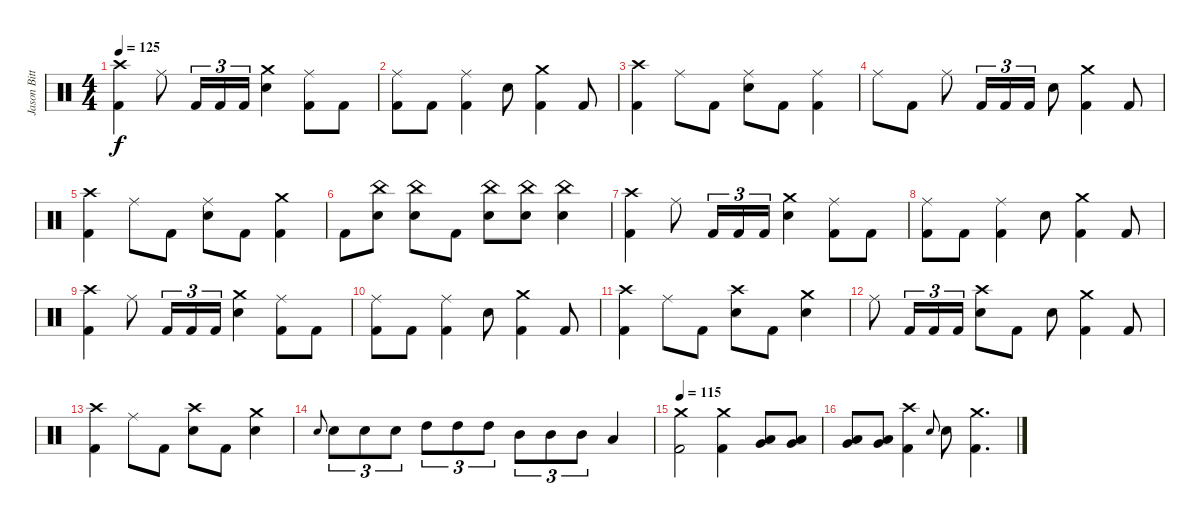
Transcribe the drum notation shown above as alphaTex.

\track ("Jason Bittner" "Jason Bitt") {instrument percussion}
\staff {score}
\articulation defaults
\ts (4 4)
\tempo 125
\clef neutral
\ks c
("Crash high (hit)" "Kick (hit) 2").4{dy f} "Ride (middle)".8 "Kick (hit) 2".16{tu (3 2)} "Kick (hit) 2".16{tu (3 2)} "Kick (hit) 2".16{tu (3 2)} ("Crash medium (hit)" "Electric Snare (hit)").4 ("Ride (middle)" "Kick (hit) 2").8 "Kick (hit) 2".8 |
("Ride (middle)" "Kick (hit) 2").8 "Kick (hit) 2".8 ("Ride (middle)" "Kick (hit) 2").4 "Electric Snare (hit)".8 ("Crash medium (hit)" "Kick (hit) 2").4 "Kick (hit) 2".8 |
("Crash high (hit)" "Kick (hit) 2").4 "Ride (middle)".8 "Kick (hit) 2".8 ("Ride (middle)" "Electric Snare (hit)").8 "Kick (hit) 2".8 ("Ride (middle)" "Kick (hit) 2").4 |
"Ride (middle)".8 "Kick (hit) 2".8 "Ride (middle)".8 "Kick (hit) 2".16{tu (3 2)} "Kick (hit) 2".16{tu (3 2)} "Kick (hit) 2".16{tu (3 2)} "Electric Snare (hit)".8 ("Crash medium (hit)" "Kick (hit) 2").4 "Kick (hit) 2".8 |
("Crash high (hit)" "Kick (hit) 2").4 "Ride (middle)".8 "Kick (hit) 2".8 ("Ride (middle)" "Electric Snare (hit)").8 "Kick (hit) 2".8 ("Crash medium (hit)" "Kick (hit) 2").4 |
"Kick (hit) 2".8 ("China (hit)" "Electric Snare (hit)").8 ("China (hit)" "Electric Snare (hit)").8 "Kick (hit) 2".8 ("China (hit)" "Electric Snare (hit)").8 ("China (hit)" "Electric Snare (hit)").8 ("China (hit)" "Electric Snare (hit)").4 |
("Crash high (hit)" "Kick (hit) 2").4 "Ride (middle)".8 "Kick (hit) 2".16{tu (3 2)} "Kick (hit) 2".16{tu (3 2)} "Kick (hit) 2".16{tu (3 2)} ("Crash medium (hit)" "Electric Snare (hit)").4 ("Ride (middle)" "Kick (hit) 2").8 "Kick (hit) 2".8 |
("Ride (middle)" "Kick (hit) 2").8 "Kick (hit) 2".8 ("Ride (middle)" "Kick (hit) 2").4 "Electric Snare (hit)".8 ("Crash medium (hit)" "Kick (hit) 2").4 "Kick (hit) 2".8 |
("Crash high (hit)" "Kick (hit) 2").4 "Ride (middle)".8 "Kick (hit) 2".16{tu (3 2)} "Kick (hit) 2".16{tu (3 2)} "Kick (hit) 2".16{tu (3 2)} ("Crash medium (hit)" "Electric Snare (hit)").4 ("Ride (middle)" "Kick (hit) 2").8 "Kick (hit) 2".8 |
("Ride (middle)" "Kick (hit) 2").8 "Kick (hit) 2".8 ("Ride (middle)" "Kick (hit) 2").4 "Electric Snare (hit)".8 ("Crash medium (hit)" "Kick (hit) 2").4 "Kick (hit) 2".8 |
("Crash high (hit)" "Kick (hit) 2").4 "Ride (middle)".8 "Kick (hit) 2".8 ("Crash high (hit)" "Electric Snare (hit)").8 "Kick (hit) 2".8 ("Crash medium (hit)" "Electric Snare (hit)").4 |
"Ride (middle)".8 "Kick (hit) 2".16{tu (3 2)} "Kick (hit) 2".16{tu (3 2)} "Kick (hit) 2".16{tu (3 2)} ("Crash high (hit)" "Electric Snare (hit)").8 "Kick (hit) 2".8 "Electric Snare (hit)".8 ("Crash medium (hit)" "Kick (hit) 2").4 "Kick (hit) 2".8 |
("Crash high (hit)" "Kick (hit) 2").4 "Ride (middle)".8 "Kick (hit) 2".8 ("Crash high (hit)" "Electric Snare (hit)").8 "Kick (hit) 2".8 ("Crash medium (hit)" "Electric Snare (hit)").4 |
"Electric Snare (hit)".8{gr onbeat} "Electric Snare (hit)".8{tu (3 2)} "Electric Snare (hit)".8{tu (3 2)} "Electric Snare (hit)".8{tu (3 2)} "High Tom (hit)".8{tu (3 2)} "High Tom (hit)".8{tu (3 2)} "High Tom (hit)".8{tu (3 2)} "Mid Tom (hit)".8{tu (3 2)} "Mid Tom (hit)".8{tu (3 2)} "Mid Tom (hit)".8{tu (3 2)} "Low Tom (hit)".4 |
\tempo 115
("Crash medium (hit)" "Kick (hit) 2").2 ("Crash medium (hit)" "Kick (hit) 2").4 ("Low Tom (hit)" "Very Low Tom (hit)").8 ("Low Tom (hit)" "Very Low Tom (hit)").8 |
("Low Tom (hit)" "Very Low Tom (hit)").8 ("Low Tom (hit)" "Very Low Tom (hit)").8 ("Crash high (hit)" "Kick (hit) 2").4 "Electric Snare (hit)".8{gr onbeat} "Electric Snare (hit)".8 ("Crash medium (hit)" "Kick (hit) 2").4{d}
